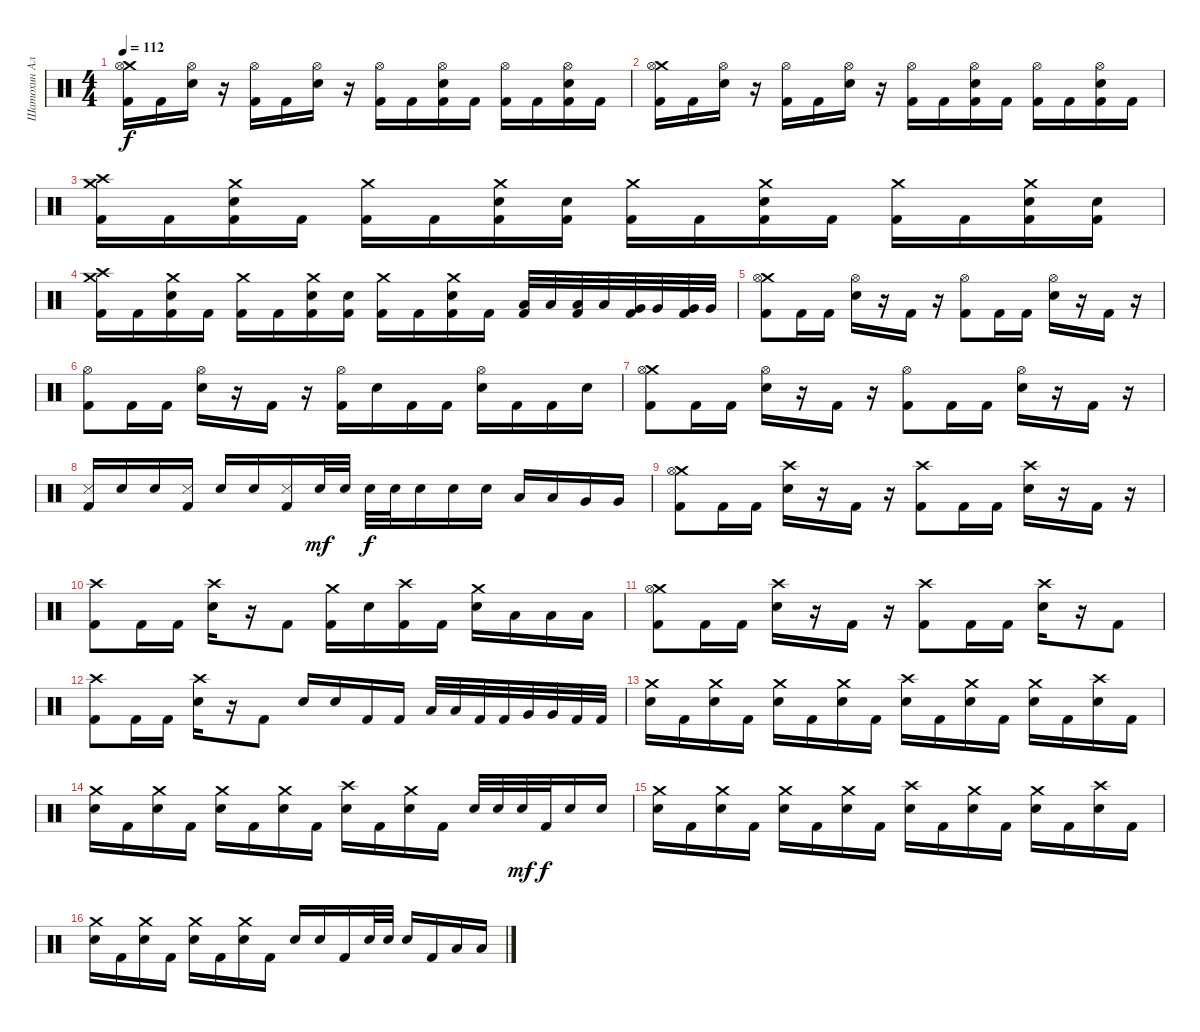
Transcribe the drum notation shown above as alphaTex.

\track ("Шатохин Алексей" "Шатохин Ал") {instrument percussion}
\staff {score}
\articulation defaults
\ts (4 4)
\tempo 112
\clef neutral
\ks c
("Crash medium (hit)" "Hi-Hat (open)" "Kick (hit) 2").16{dy f} "Kick (hit) 2".16 ("Hi-Hat (open)" "Electric Snare (hit)").16 r.16 ("Hi-Hat (open)" "Kick (hit) 2").16 "Kick (hit) 2".16 ("Hi-Hat (open)" "Electric Snare (hit)").16 r.16 ("Hi-Hat (open)" "Kick (hit) 2").16 "Kick (hit) 2".16 ("Hi-Hat (open)" "Electric Snare (hit)" "Kick (hit) 2").16 "Kick (hit) 2".16 ("Hi-Hat (open)" "Kick (hit) 2").16 "Kick (hit) 2".16 ("Hi-Hat (open)" "Electric Snare (hit)" "Kick (hit) 2").16 "Kick (hit) 2".16 |
("Crash medium (hit)" "Hi-Hat (open)" "Kick (hit) 2").16 "Kick (hit) 2".16 ("Hi-Hat (open)" "Electric Snare (hit)").16 r.16 ("Hi-Hat (open)" "Kick (hit) 2").16 "Kick (hit) 2".16 ("Hi-Hat (open)" "Electric Snare (hit)").16 r.16 ("Hi-Hat (open)" "Kick (hit) 2").16 "Kick (hit) 2".16 ("Hi-Hat (open)" "Electric Snare (hit)" "Kick (hit) 2").16 "Kick (hit) 2".16 ("Hi-Hat (open)" "Kick (hit) 2").16 "Kick (hit) 2".16 ("Hi-Hat (open)" "Electric Snare (hit)" "Kick (hit) 2").16 "Kick (hit) 2".16 |
("Crash medium (hit)" "Crash high (hit)" "Kick (hit) 2").16 "Kick (hit) 2".16 ("Crash medium (hit)" "Electric Snare (hit)" "Kick (hit) 2").16 "Kick (hit) 2".16 ("Crash medium (hit)" "Kick (hit) 2").16 "Kick (hit) 2".16 ("Crash medium (hit)" "Electric Snare (hit)" "Kick (hit) 2").16 ("Electric Snare (hit)" "Kick (hit) 2").16 ("Crash medium (hit)" "Kick (hit) 2").16 "Kick (hit) 2".16 ("Crash medium (hit)" "Electric Snare (hit)" "Kick (hit) 2").16 "Kick (hit) 2".16 ("Crash medium (hit)" "Kick (hit) 2").16 "Kick (hit) 2".16 ("Crash medium (hit)" "Electric Snare (hit)" "Kick (hit) 2").16 ("Electric Snare (hit)" "Kick (hit) 2").16 |
("Crash medium (hit)" "Crash high (hit)" "Kick (hit) 2").16 "Kick (hit) 2".16 ("Crash medium (hit)" "Electric Snare (hit)" "Kick (hit) 2").16 "Kick (hit) 2".16 ("Crash medium (hit)" "Kick (hit) 2").16 "Kick (hit) 2".16 ("Crash medium (hit)" "Electric Snare (hit)" "Kick (hit) 2").16 ("Electric Snare (hit)" "Kick (hit) 2").16 ("Crash medium (hit)" "Kick (hit) 2").16 "Kick (hit) 2".16 ("Crash medium (hit)" "Electric Snare (hit)" "Kick (hit) 2").16 "Kick (hit) 2".16 ("Low Tom (hit)" "Kick (hit) 2").32 "Low Tom (hit)".32 ("Low Tom (hit)" "Kick (hit) 2").32 "Low Tom (hit)".32 ("Very Low Tom (hit)" "Kick (hit) 2").32 "Very Low Tom (hit)".32 ("Very Low Tom (hit)" "Kick (hit) 2").32 "Very Low Tom (hit)".32 |
("Crash medium (hit)" "Hi-Hat (open)" "Kick (hit) 2").8 "Kick (hit) 2".16 "Kick (hit) 2".16 ("Hi-Hat (open)" "Electric Snare (hit)").16 r.16 "Kick (hit) 2".16 r.16 ("Hi-Hat (open)" "Kick (hit) 2").8 "Kick (hit) 2".16 "Kick (hit) 2".16 ("Hi-Hat (open)" "Electric Snare (hit)").16 r.16 "Kick (hit) 2".16 r.16 |
("Hi-Hat (open)" "Kick (hit) 2").8 "Kick (hit) 2".16 "Kick (hit) 2".16 ("Hi-Hat (open)" "Electric Snare (hit)").16 r.16 "Kick (hit) 2".16 r.16 ("Hi-Hat (open)" "Kick (hit) 2").16 "Electric Snare (hit)".16 "Kick (hit) 2".16 "Kick (hit) 2".16 ("Hi-Hat (open)" "Electric Snare (hit)").16 "Kick (hit) 2".16 "Kick (hit) 2".16 "Electric Snare (hit)".16 |
("Crash medium (hit)" "Hi-Hat (open)" "Kick (hit) 2").8 "Kick (hit) 2".16 "Kick (hit) 2".16 ("Hi-Hat (open)" "Electric Snare (hit)").16 r.16 "Kick (hit) 2".16 r.16 ("Hi-Hat (open)" "Kick (hit) 2").8 "Kick (hit) 2".16 "Kick (hit) 2".16 ("Hi-Hat (open)" "Electric Snare (hit)").16 r.16 "Kick (hit) 2".16 r.16 |
("Snare (side stick) 3" "Kick (hit) 2").16 "Electric Snare (hit)".16 "Electric Snare (hit)".16 ("Snare (side stick) 3" "Kick (hit) 2").16 "Electric Snare (hit)".16 "Electric Snare (hit)".16 ("Snare (side stick) 3" "Kick (hit) 2").16 "Electric Snare (hit)".32{dy mf} "Electric Snare (hit)".32 "Electric Snare (hit)".32{dy f} "Electric Snare (hit)".32 "Electric Snare (hit)".16 "Electric Snare (hit)".16 "Electric Snare (hit)".16 "Low Tom (hit)".16 "Low Tom (hit)".16 "Very Low Tom (hit)".16 "Very Low Tom (hit)".16 |
("Crash medium (hit)" "Hi-Hat (open)" "Kick (hit) 2").8 "Kick (hit) 2".16 "Kick (hit) 2".16 ("Crash high (hit)" "Electric Snare (hit)").16 r.16 "Kick (hit) 2".16 r.16 ("Crash high (hit)" "Kick (hit) 2").8 "Kick (hit) 2".16 "Kick (hit) 2".16 ("Crash high (hit)" "Electric Snare (hit)").16 r.16 "Kick (hit) 2".16 r.16 |
("Crash high (hit)" "Kick (hit) 2").8 "Kick (hit) 2".16 "Kick (hit) 2".16 ("Crash high (hit)" "Electric Snare (hit)").16 r.16 "Kick (hit) 2".8 ("Crash medium (hit)" "Kick (hit) 2").16 "Electric Snare (hit)".16 ("Crash high (hit)" "Kick (hit) 2").16 "Kick (hit) 2".16 ("Crash medium (hit)" "Electric Snare (hit)").16 "Low Tom (hit)".16 "Low Floor Tom (hit)".16 "Low Floor Tom (hit)".16 |
("Crash medium (hit)" "Hi-Hat (open)" "Kick (hit) 2").8 "Kick (hit) 2".16 "Kick (hit) 2".16 ("Crash high (hit)" "Electric Snare (hit)").16 r.16 "Kick (hit) 2".16 r.16 ("Crash high (hit)" "Kick (hit) 2").8 "Kick (hit) 2".16 "Kick (hit) 2".16 ("Crash high (hit)" "Electric Snare (hit)").16 r.16 "Kick (hit) 2".8 |
("Crash high (hit)" "Kick (hit) 2").8 "Kick (hit) 2".16 "Kick (hit) 2".16 ("Crash high (hit)" "Electric Snare (hit)").16 r.16 "Kick (hit) 2".8 "Electric Snare (hit)".16 "Electric Snare (hit)".16 "Kick (hit) 2".16 "Kick (hit) 2".16 "Low Tom (hit)".32 "Low Tom (hit)".32 "Kick (hit) 2".32 "Kick (hit) 2".32 "Very Low Tom (hit)".32 "Very Low Tom (hit)".32 "Kick (hit) 2".32 "Kick (hit) 2".32 |
("Crash medium (hit)" "Electric Snare (hit)").16 "Kick (hit) 2".16 ("Crash medium (hit)" "Electric Snare (hit)").16 "Kick (hit) 2".16 ("Crash medium (hit)" "Electric Snare (hit)").16 "Kick (hit) 2".16 ("Crash medium (hit)" "Electric Snare (hit)").16 "Kick (hit) 2".16 ("Crash high (hit)" "Electric Snare (hit)").16 "Kick (hit) 2".16 ("Crash medium (hit)" "Electric Snare (hit)").16 "Kick (hit) 2".16 ("Crash medium (hit)" "Electric Snare (hit)").16 "Kick (hit) 2".16 ("Crash high (hit)" "Electric Snare (hit)").16 "Kick (hit) 2".16 |
("Crash medium (hit)" "Electric Snare (hit)").16 "Kick (hit) 2".16 ("Crash medium (hit)" "Electric Snare (hit)").16 "Kick (hit) 2".16 ("Crash medium (hit)" "Electric Snare (hit)").16 "Kick (hit) 2".16 ("Crash medium (hit)" "Electric Snare (hit)").16 "Kick (hit) 2".16 ("Crash high (hit)" "Electric Snare (hit)").16 "Kick (hit) 2".16 ("Crash medium (hit)" "Electric Snare (hit)").16 "Kick (hit) 2".16 "Electric Snare (hit)".32 "Electric Snare (hit)".32 "Electric Snare (hit)".32{dy mf} "Kick (hit) 2".32{dy f} "Electric Snare (hit)".16 "Electric Snare (hit)".16 |
("Crash medium (hit)" "Electric Snare (hit)").16 "Kick (hit) 2".16 ("Crash medium (hit)" "Electric Snare (hit)").16 "Kick (hit) 2".16 ("Crash medium (hit)" "Electric Snare (hit)").16 "Kick (hit) 2".16 ("Crash medium (hit)" "Electric Snare (hit)").16 "Kick (hit) 2".16 ("Crash high (hit)" "Electric Snare (hit)").16 "Kick (hit) 2".16 ("Crash medium (hit)" "Electric Snare (hit)").16 "Kick (hit) 2".16 ("Crash medium (hit)" "Electric Snare (hit)").16 "Kick (hit) 2".16 ("Crash high (hit)" "Electric Snare (hit)").16 "Kick (hit) 2".16 |
("Crash medium (hit)" "Electric Snare (hit)").16 "Kick (hit) 2".16 ("Crash medium (hit)" "Electric Snare (hit)").16 "Kick (hit) 2".16 ("Crash medium (hit)" "Electric Snare (hit)").16 "Kick (hit) 2".16 ("Crash medium (hit)" "Electric Snare (hit)").16 "Kick (hit) 2".16 "Electric Snare (hit)".16 "Electric Snare (hit)".16 "Kick (hit) 2".16 "Electric Snare (hit)".32 "Electric Snare (hit)".32 "Electric Snare (hit)".16 "Kick (hit) 2".16 "Low Tom (hit)".16 "Low Tom (hit)".16
